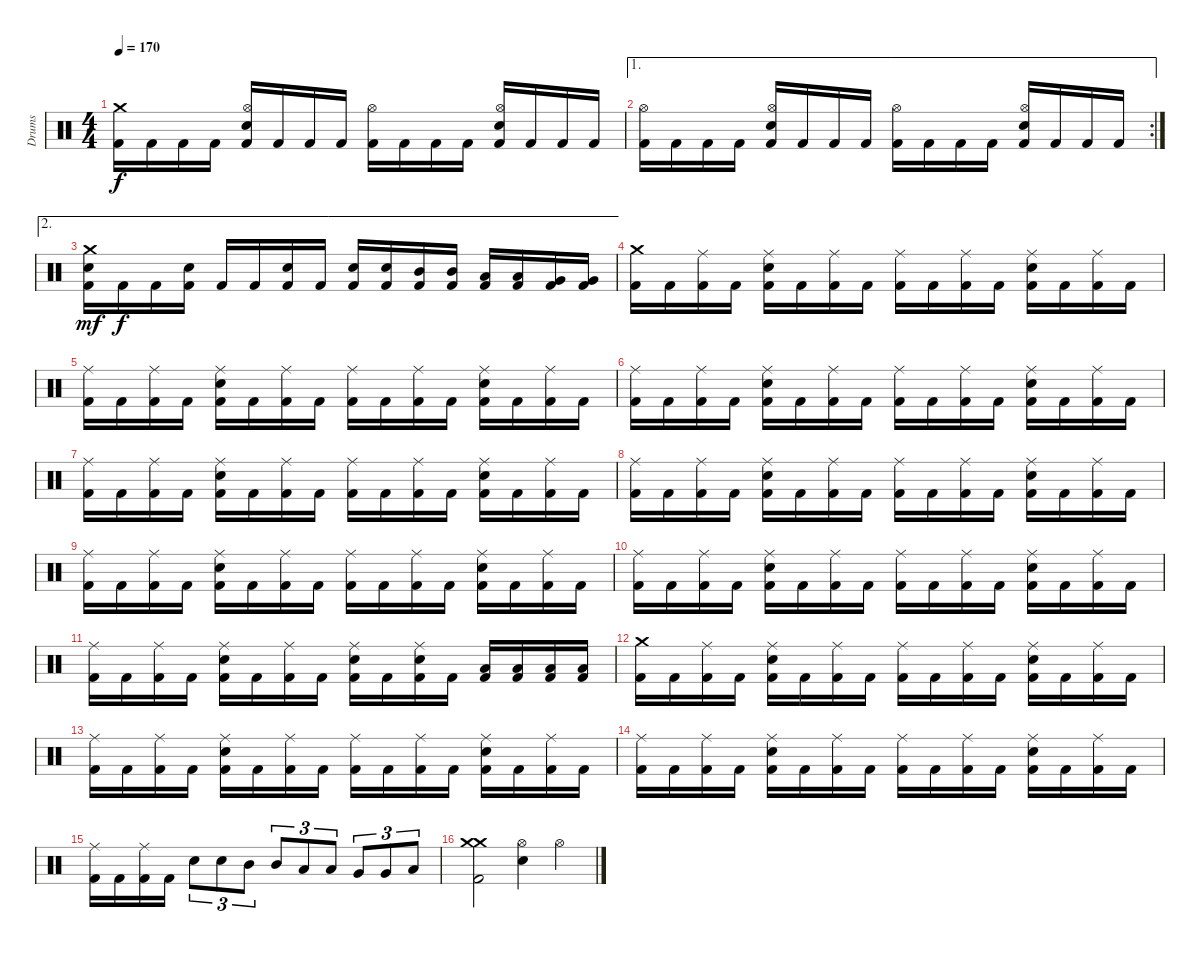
\track ("Drums" "Drums") {instrument percussion}
\staff {score}
\articulation defaults
\ts (4 4)
\tempo 170
\clef neutral
\ks c
("Crash medium (hit)" "Kick (hit) 2").16{dy f} "Kick (hit) 2".16 "Kick (hit) 2".16 "Kick (hit) 2".16 ("Hi-Hat (open)" "Snare (hit) 2" "Kick (hit) 2").16 "Kick (hit) 2".16 "Kick (hit) 2".16 "Kick (hit) 2".16 ("Hi-Hat (open)" "Kick (hit) 2").16 "Kick (hit) 2".16 "Kick (hit) 2".16 "Kick (hit) 2".16 ("Hi-Hat (open)" "Snare (hit) 2" "Kick (hit) 2").16 "Kick (hit) 2".16 "Kick (hit) 2".16 "Kick (hit) 2".16 |
\ae 1
\rc 2
("Hi-Hat (open)" "Kick (hit) 2").16 "Kick (hit) 2".16 "Kick (hit) 2".16 "Kick (hit) 2".16 ("Hi-Hat (open)" "Snare (hit) 2" "Kick (hit) 2").16 "Kick (hit) 2".16 "Kick (hit) 2".16 "Kick (hit) 2".16 ("Hi-Hat (open)" "Kick (hit) 2").16 "Kick (hit) 2".16 "Kick (hit) 2".16 "Kick (hit) 2".16 ("Hi-Hat (open)" "Snare (hit) 2" "Kick (hit) 2").16 "Kick (hit) 2".16 "Kick (hit) 2".16 "Kick (hit) 2".16 |
\ae 2
("Crash medium (hit)" "Snare (hit) 2" "Kick (hit) 2").16{dy mf} "Kick (hit) 2".16{dy f} "Kick (hit) 2".16 ("Snare (hit) 2" "Kick (hit) 2").16 "Kick (hit) 2".16 "Kick (hit) 2".16 ("Snare (hit) 2" "Kick (hit) 2").16 "Kick (hit) 2".16 ("Snare (hit) 2" "Kick (hit) 2").16 ("Snare (hit) 2" "Kick (hit) 2").16 ("Mid Tom (hit)" "Kick (hit) 2").16 ("Mid Tom (hit)" "Kick (hit) 2").16 ("Low Tom (hit)" "Kick (hit) 2").16 ("Low Tom (hit)" "Kick (hit) 2").16 ("Very Low Tom (hit)" "Kick (hit) 2").16 ("Very Low Tom (hit)" "Kick (hit) 2").16 |
("Crash medium (hit)" "Kick (hit) 2").16 "Kick (hit) 2".16 ("Ride (middle)" "Kick (hit) 2").16 "Kick (hit) 2".16 ("Ride (middle)" "Snare (hit) 2" "Kick (hit) 2").16 "Kick (hit) 2".16 ("Ride (middle)" "Kick (hit) 2").16 "Kick (hit) 2".16 ("Ride (middle)" "Kick (hit) 2").16 "Kick (hit) 2".16 ("Ride (middle)" "Kick (hit) 2").16 "Kick (hit) 2".16 ("Ride (middle)" "Snare (hit) 2" "Kick (hit) 2").16 "Kick (hit) 2".16 ("Ride (middle)" "Kick (hit) 2").16 "Kick (hit) 2".16 |
("Ride (middle)" "Kick (hit) 2").16 "Kick (hit) 2".16 ("Ride (middle)" "Kick (hit) 2").16 "Kick (hit) 2".16 ("Ride (middle)" "Snare (hit) 2" "Kick (hit) 2").16 "Kick (hit) 2".16 ("Ride (middle)" "Kick (hit) 2").16 "Kick (hit) 2".16 ("Ride (middle)" "Kick (hit) 2").16 "Kick (hit) 2".16 ("Ride (middle)" "Kick (hit) 2").16 "Kick (hit) 2".16 ("Ride (middle)" "Snare (hit) 2" "Kick (hit) 2").16 "Kick (hit) 2".16 ("Ride (middle)" "Kick (hit) 2").16 "Kick (hit) 2".16 |
("Ride (middle)" "Kick (hit) 2").16 "Kick (hit) 2".16 ("Ride (middle)" "Kick (hit) 2").16 "Kick (hit) 2".16 ("Ride (middle)" "Snare (hit) 2" "Kick (hit) 2").16 "Kick (hit) 2".16 ("Ride (middle)" "Kick (hit) 2").16 "Kick (hit) 2".16 ("Ride (middle)" "Kick (hit) 2").16 "Kick (hit) 2".16 ("Ride (middle)" "Kick (hit) 2").16 "Kick (hit) 2".16 ("Ride (middle)" "Snare (hit) 2" "Kick (hit) 2").16 "Kick (hit) 2".16 ("Ride (middle)" "Kick (hit) 2").16 "Kick (hit) 2".16 |
("Ride (middle)" "Kick (hit) 2").16 "Kick (hit) 2".16 ("Ride (middle)" "Kick (hit) 2").16 "Kick (hit) 2".16 ("Ride (middle)" "Snare (hit) 2" "Kick (hit) 2").16 "Kick (hit) 2".16 ("Ride (middle)" "Kick (hit) 2").16 "Kick (hit) 2".16 ("Ride (middle)" "Kick (hit) 2").16 "Kick (hit) 2".16 ("Ride (middle)" "Kick (hit) 2").16 "Kick (hit) 2".16 ("Ride (middle)" "Snare (hit) 2" "Kick (hit) 2").16 "Kick (hit) 2".16 ("Ride (middle)" "Kick (hit) 2").16 "Kick (hit) 2".16 |
("Ride (middle)" "Kick (hit) 2").16 "Kick (hit) 2".16 ("Ride (middle)" "Kick (hit) 2").16 "Kick (hit) 2".16 ("Ride (middle)" "Snare (hit) 2" "Kick (hit) 2").16 "Kick (hit) 2".16 ("Ride (middle)" "Kick (hit) 2").16 "Kick (hit) 2".16 ("Ride (middle)" "Kick (hit) 2").16 "Kick (hit) 2".16 ("Ride (middle)" "Kick (hit) 2").16 "Kick (hit) 2".16 ("Ride (middle)" "Snare (hit) 2" "Kick (hit) 2").16 "Kick (hit) 2".16 ("Ride (middle)" "Kick (hit) 2").16 "Kick (hit) 2".16 |
("Ride (middle)" "Kick (hit) 2").16 "Kick (hit) 2".16 ("Ride (middle)" "Kick (hit) 2").16 "Kick (hit) 2".16 ("Ride (middle)" "Snare (hit) 2" "Kick (hit) 2").16 "Kick (hit) 2".16 ("Ride (middle)" "Kick (hit) 2").16 "Kick (hit) 2".16 ("Ride (middle)" "Kick (hit) 2").16 "Kick (hit) 2".16 ("Ride (middle)" "Kick (hit) 2").16 "Kick (hit) 2".16 ("Ride (middle)" "Snare (hit) 2" "Kick (hit) 2").16 "Kick (hit) 2".16 ("Ride (middle)" "Kick (hit) 2").16 "Kick (hit) 2".16 |
("Ride (middle)" "Kick (hit) 2").16 "Kick (hit) 2".16 ("Ride (middle)" "Kick (hit) 2").16 "Kick (hit) 2".16 ("Ride (middle)" "Snare (hit) 2" "Kick (hit) 2").16 "Kick (hit) 2".16 ("Ride (middle)" "Kick (hit) 2").16 "Kick (hit) 2".16 ("Ride (middle)" "Kick (hit) 2").16 "Kick (hit) 2".16 ("Ride (middle)" "Kick (hit) 2").16 "Kick (hit) 2".16 ("Ride (middle)" "Snare (hit) 2" "Kick (hit) 2").16 "Kick (hit) 2".16 ("Ride (middle)" "Kick (hit) 2").16 "Kick (hit) 2".16 |
("Ride (middle)" "Kick (hit) 2").16 "Kick (hit) 2".16 ("Ride (middle)" "Kick (hit) 2").16 "Kick (hit) 2".16 ("Ride (middle)" "Snare (hit) 2" "Kick (hit) 2").16 "Kick (hit) 2".16 ("Ride (middle)" "Kick (hit) 2").16 "Kick (hit) 2".16 ("Ride (middle)" "Snare (hit) 2" "Kick (hit) 2").16 "Kick (hit) 2".16 ("Ride (middle)" "Snare (hit) 2" "Kick (hit) 2").16 "Kick (hit) 2".16 ("Low Tom (hit)" "Kick (hit) 2").16 ("Low Tom (hit)" "Kick (hit) 2").16 ("Low Tom (hit)" "Kick (hit) 2").16 ("Low Tom (hit)" "Kick (hit) 2").16 |
("Crash medium (hit)" "Kick (hit) 2").16 "Kick (hit) 2".16 ("Ride (middle)" "Kick (hit) 2").16 "Kick (hit) 2".16 ("Ride (middle)" "Snare (hit) 2" "Kick (hit) 2").16 "Kick (hit) 2".16 ("Ride (middle)" "Kick (hit) 2").16 "Kick (hit) 2".16 ("Ride (middle)" "Kick (hit) 2").16 "Kick (hit) 2".16 ("Ride (middle)" "Kick (hit) 2").16 "Kick (hit) 2".16 ("Ride (middle)" "Snare (hit) 2" "Kick (hit) 2").16 "Kick (hit) 2".16 ("Ride (middle)" "Kick (hit) 2").16 "Kick (hit) 2".16 |
("Ride (middle)" "Kick (hit) 2").16 "Kick (hit) 2".16 ("Ride (middle)" "Kick (hit) 2").16 "Kick (hit) 2".16 ("Ride (middle)" "Snare (hit) 2" "Kick (hit) 2").16 "Kick (hit) 2".16 ("Ride (middle)" "Kick (hit) 2").16 "Kick (hit) 2".16 ("Ride (middle)" "Kick (hit) 2").16 "Kick (hit) 2".16 ("Ride (middle)" "Kick (hit) 2").16 "Kick (hit) 2".16 ("Ride (middle)" "Snare (hit) 2" "Kick (hit) 2").16 "Kick (hit) 2".16 ("Ride (middle)" "Kick (hit) 2").16 "Kick (hit) 2".16 |
("Ride (middle)" "Kick (hit) 2").16 "Kick (hit) 2".16 ("Ride (middle)" "Kick (hit) 2").16 "Kick (hit) 2".16 ("Ride (middle)" "Snare (hit) 2" "Kick (hit) 2").16 "Kick (hit) 2".16 ("Ride (middle)" "Kick (hit) 2").16 "Kick (hit) 2".16 ("Ride (middle)" "Kick (hit) 2").16 "Kick (hit) 2".16 ("Ride (middle)" "Kick (hit) 2").16 "Kick (hit) 2".16 ("Ride (middle)" "Snare (hit) 2" "Kick (hit) 2").16 "Kick (hit) 2".16 ("Ride (middle)" "Kick (hit) 2").16 "Kick (hit) 2".16 |
("Ride (middle)" "Kick (hit) 2").16 "Kick (hit) 2".16 ("Ride (middle)" "Kick (hit) 2").16 "Kick (hit) 2".16 "Snare (hit) 2".8{tu (3 2)} "Snare (hit) 2".8{tu (3 2)} "Mid Tom (hit)".8{tu (3 2)} "Mid Tom (hit)".8{tu (3 2)} "Low Tom (hit)".8{tu (3 2)} "Low Tom (hit)".8{tu (3 2)} "Very Low Tom (hit)".8{tu (3 2)} "Very Low Tom (hit)".8{tu (3 2)} "Low Floor Tom (hit)".8{tu (3 2)} |
("Crash medium (hit)" "Crash medium (hit)" "Kick (hit) 2").2 ("Hi-Hat (open)" "Snare (hit) 2").4 "Hi-Hat (open)".4
